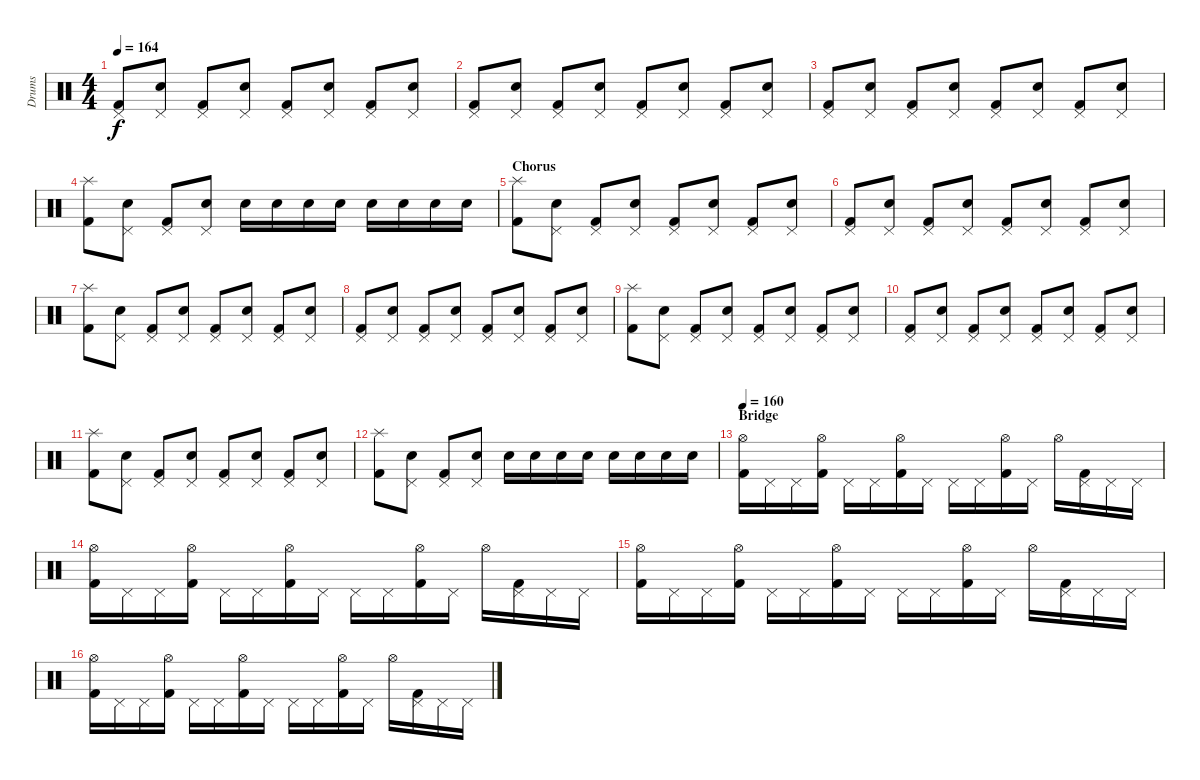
\track ("Drums" "Drums") {instrument percussion}
\staff {score}
\articulation defaults
\ts (4 4)
\tempo 164
\clef neutral
\ks c
("Pedal Hi-Hat (hit)" "Kick (hit) 2").8{dy f} ("Pedal Hi-Hat (hit)" "Electric Snare (hit)").8 ("Pedal Hi-Hat (hit)" "Kick (hit) 2").8 ("Pedal Hi-Hat (hit)" "Electric Snare (hit)").8 ("Pedal Hi-Hat (hit)" "Kick (hit) 2").8 ("Pedal Hi-Hat (hit)" "Electric Snare (hit)").8 ("Pedal Hi-Hat (hit)" "Kick (hit) 2").8 ("Pedal Hi-Hat (hit)" "Electric Snare (hit)").8 |
("Pedal Hi-Hat (hit)" "Kick (hit) 2").8 ("Pedal Hi-Hat (hit)" "Electric Snare (hit)").8 ("Pedal Hi-Hat (hit)" "Kick (hit) 2").8 ("Pedal Hi-Hat (hit)" "Electric Snare (hit)").8 ("Pedal Hi-Hat (hit)" "Kick (hit) 2").8 ("Pedal Hi-Hat (hit)" "Electric Snare (hit)").8 ("Pedal Hi-Hat (hit)" "Kick (hit) 2").8 ("Pedal Hi-Hat (hit)" "Electric Snare (hit)").8 |
("Pedal Hi-Hat (hit)" "Kick (hit) 2").8 ("Pedal Hi-Hat (hit)" "Electric Snare (hit)").8 ("Pedal Hi-Hat (hit)" "Kick (hit) 2").8 ("Pedal Hi-Hat (hit)" "Electric Snare (hit)").8 ("Pedal Hi-Hat (hit)" "Kick (hit) 2").8 ("Pedal Hi-Hat (hit)" "Electric Snare (hit)").8 ("Pedal Hi-Hat (hit)" "Kick (hit) 2").8 ("Pedal Hi-Hat (hit)" "Electric Snare (hit)").8 |
("Splash (hit)" "Kick (hit) 2").8 ("Pedal Hi-Hat (hit)" "Electric Snare (hit)").8 ("Pedal Hi-Hat (hit)" "Kick (hit) 2").8 ("Pedal Hi-Hat (hit)" "Electric Snare (hit)").8 "Electric Snare (hit)".16 "Electric Snare (hit)".16 "Electric Snare (hit)".16 "Electric Snare (hit)".16 "Electric Snare (hit)".16 "Electric Snare (hit)".16 "Electric Snare (hit)".16 "Electric Snare (hit)".16 |
\section ("" "Chorus")
("Splash (hit)" "Kick (hit) 2").8 ("Pedal Hi-Hat (hit)" "Electric Snare (hit)").8 ("Pedal Hi-Hat (hit)" "Kick (hit) 2").8 ("Pedal Hi-Hat (hit)" "Electric Snare (hit)").8 ("Pedal Hi-Hat (hit)" "Kick (hit) 2").8 ("Pedal Hi-Hat (hit)" "Electric Snare (hit)").8 ("Pedal Hi-Hat (hit)" "Kick (hit) 2").8 ("Pedal Hi-Hat (hit)" "Electric Snare (hit)").8 |
("Pedal Hi-Hat (hit)" "Kick (hit) 2").8 ("Pedal Hi-Hat (hit)" "Electric Snare (hit)").8 ("Pedal Hi-Hat (hit)" "Kick (hit) 2").8 ("Pedal Hi-Hat (hit)" "Electric Snare (hit)").8 ("Pedal Hi-Hat (hit)" "Kick (hit) 2").8 ("Pedal Hi-Hat (hit)" "Electric Snare (hit)").8 ("Pedal Hi-Hat (hit)" "Kick (hit) 2").8 ("Pedal Hi-Hat (hit)" "Electric Snare (hit)").8 |
("Splash (hit)" "Kick (hit) 2").8 ("Pedal Hi-Hat (hit)" "Electric Snare (hit)").8 ("Pedal Hi-Hat (hit)" "Kick (hit) 2").8 ("Pedal Hi-Hat (hit)" "Electric Snare (hit)").8 ("Pedal Hi-Hat (hit)" "Kick (hit) 2").8 ("Pedal Hi-Hat (hit)" "Electric Snare (hit)").8 ("Pedal Hi-Hat (hit)" "Kick (hit) 2").8 ("Pedal Hi-Hat (hit)" "Electric Snare (hit)").8 |
("Pedal Hi-Hat (hit)" "Kick (hit) 2").8 ("Pedal Hi-Hat (hit)" "Electric Snare (hit)").8 ("Pedal Hi-Hat (hit)" "Kick (hit) 2").8 ("Pedal Hi-Hat (hit)" "Electric Snare (hit)").8 ("Pedal Hi-Hat (hit)" "Kick (hit) 2").8 ("Pedal Hi-Hat (hit)" "Electric Snare (hit)").8 ("Pedal Hi-Hat (hit)" "Kick (hit) 2").8 ("Pedal Hi-Hat (hit)" "Electric Snare (hit)").8 |
("Splash (hit)" "Kick (hit) 2").8 ("Pedal Hi-Hat (hit)" "Electric Snare (hit)").8 ("Pedal Hi-Hat (hit)" "Kick (hit) 2").8 ("Pedal Hi-Hat (hit)" "Electric Snare (hit)").8 ("Pedal Hi-Hat (hit)" "Kick (hit) 2").8 ("Pedal Hi-Hat (hit)" "Electric Snare (hit)").8 ("Pedal Hi-Hat (hit)" "Kick (hit) 2").8 ("Pedal Hi-Hat (hit)" "Electric Snare (hit)").8 |
("Pedal Hi-Hat (hit)" "Kick (hit) 2").8 ("Pedal Hi-Hat (hit)" "Electric Snare (hit)").8 ("Pedal Hi-Hat (hit)" "Kick (hit) 2").8 ("Pedal Hi-Hat (hit)" "Electric Snare (hit)").8 ("Pedal Hi-Hat (hit)" "Kick (hit) 2").8 ("Pedal Hi-Hat (hit)" "Electric Snare (hit)").8 ("Pedal Hi-Hat (hit)" "Kick (hit) 2").8 ("Pedal Hi-Hat (hit)" "Electric Snare (hit)").8 |
("Splash (hit)" "Kick (hit) 2").8 ("Pedal Hi-Hat (hit)" "Electric Snare (hit)").8 ("Pedal Hi-Hat (hit)" "Kick (hit) 2").8 ("Pedal Hi-Hat (hit)" "Electric Snare (hit)").8 ("Pedal Hi-Hat (hit)" "Kick (hit) 2").8 ("Pedal Hi-Hat (hit)" "Electric Snare (hit)").8 ("Pedal Hi-Hat (hit)" "Kick (hit) 2").8 ("Pedal Hi-Hat (hit)" "Electric Snare (hit)").8 |
("Splash (hit)" "Kick (hit) 2").8 ("Pedal Hi-Hat (hit)" "Electric Snare (hit)").8 ("Pedal Hi-Hat (hit)" "Kick (hit) 2").8 ("Pedal Hi-Hat (hit)" "Electric Snare (hit)").8 "Electric Snare (hit)".16 "Electric Snare (hit)".16 "Electric Snare (hit)".16 "Electric Snare (hit)".16 "Electric Snare (hit)".16 "Electric Snare (hit)".16 "Electric Snare (hit)".16 "Electric Snare (hit)".16 |
\section ("" "Bridge")
\tempo 160
("Hi-Hat (open)" "Kick (hit) 2").16 "Pedal Hi-Hat (hit)".16 "Pedal Hi-Hat (hit)".16 ("Hi-Hat (open)" "Kick (hit) 2").16 "Pedal Hi-Hat (hit)".16 "Pedal Hi-Hat (hit)".16 ("Hi-Hat (open)" "Kick (hit) 2").16 "Pedal Hi-Hat (hit)".16 "Pedal Hi-Hat (hit)".16 "Pedal Hi-Hat (hit)".16 ("Hi-Hat (open)" "Kick (hit) 2").16 "Pedal Hi-Hat (hit)".16 "Hi-Hat (open)".16 ("Pedal Hi-Hat (hit)" "Kick (hit) 2").16 "Pedal Hi-Hat (hit)".16 "Pedal Hi-Hat (hit)".16 |
("Hi-Hat (open)" "Kick (hit) 2").16 "Pedal Hi-Hat (hit)".16 "Pedal Hi-Hat (hit)".16 ("Hi-Hat (open)" "Kick (hit) 2").16 "Pedal Hi-Hat (hit)".16 "Pedal Hi-Hat (hit)".16 ("Hi-Hat (open)" "Kick (hit) 2").16 "Pedal Hi-Hat (hit)".16 "Pedal Hi-Hat (hit)".16 "Pedal Hi-Hat (hit)".16 ("Hi-Hat (open)" "Kick (hit) 2").16 "Pedal Hi-Hat (hit)".16 "Hi-Hat (open)".16 ("Pedal Hi-Hat (hit)" "Kick (hit) 2").16 "Pedal Hi-Hat (hit)".16 "Pedal Hi-Hat (hit)".16 |
("Hi-Hat (open)" "Kick (hit) 2").16 "Pedal Hi-Hat (hit)".16 "Pedal Hi-Hat (hit)".16 ("Hi-Hat (open)" "Kick (hit) 2").16 "Pedal Hi-Hat (hit)".16 "Pedal Hi-Hat (hit)".16 ("Hi-Hat (open)" "Kick (hit) 2").16 "Pedal Hi-Hat (hit)".16 "Pedal Hi-Hat (hit)".16 "Pedal Hi-Hat (hit)".16 ("Hi-Hat (open)" "Kick (hit) 2").16 "Pedal Hi-Hat (hit)".16 "Hi-Hat (open)".16 ("Pedal Hi-Hat (hit)" "Kick (hit) 2").16 "Pedal Hi-Hat (hit)".16 "Pedal Hi-Hat (hit)".16 |
("Hi-Hat (open)" "Kick (hit) 2").16 "Pedal Hi-Hat (hit)".16 "Pedal Hi-Hat (hit)".16 ("Hi-Hat (open)" "Kick (hit) 2").16 "Pedal Hi-Hat (hit)".16 "Pedal Hi-Hat (hit)".16 ("Hi-Hat (open)" "Kick (hit) 2").16 "Pedal Hi-Hat (hit)".16 "Pedal Hi-Hat (hit)".16 "Pedal Hi-Hat (hit)".16 ("Hi-Hat (open)" "Kick (hit) 2").16 "Pedal Hi-Hat (hit)".16 "Hi-Hat (open)".16 ("Pedal Hi-Hat (hit)" "Kick (hit) 2").16 "Pedal Hi-Hat (hit)".16 "Pedal Hi-Hat (hit)".16
